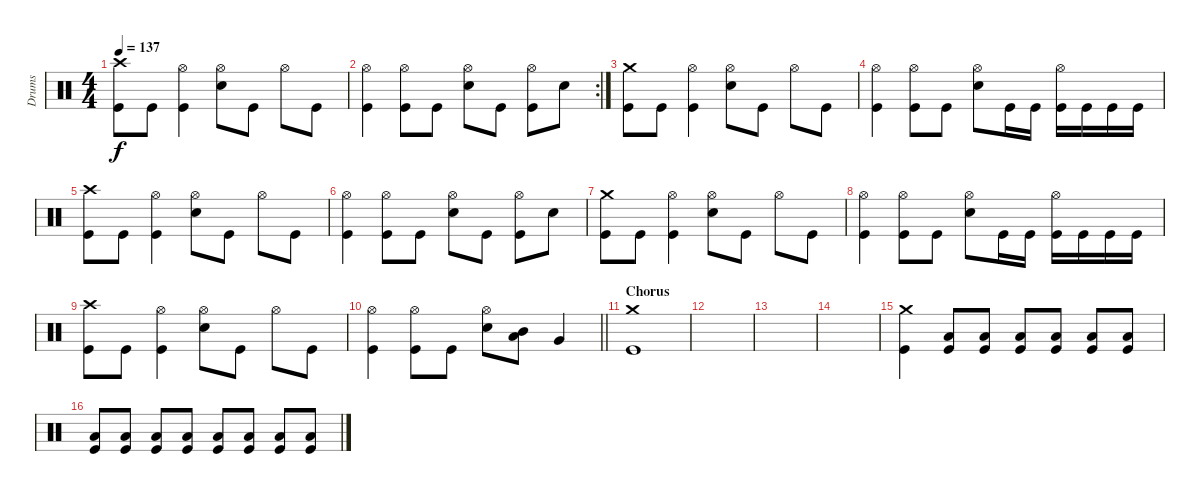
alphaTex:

\track ("Drums" "Drums") {instrument percussion}
\staff {score}
\articulation defaults
\ts (4 4)
\tempo 137
\clef neutral
\ks c
("Kick (hit)" "Crash high (hit)").8{dy f} "Kick (hit)".8 ("Kick (hit)" "Hi-Hat (open)").4 ("Snare (hit) 2" "Hi-Hat (open)").8 "Kick (hit)".8 "Hi-Hat (open)".8 "Kick (hit)".8 |
\rc 2
("Kick (hit)" "Hi-Hat (open)").4 ("Kick (hit)" "Hi-Hat (open)").8 "Kick (hit)".8 ("Snare (hit) 2" "Hi-Hat (open)").8 "Kick (hit)".8 ("Kick (hit)" "Hi-Hat (open)").8 "Snare (hit) 2".8 |
("Kick (hit)" "Crash medium (hit)").8 "Kick (hit)".8 ("Kick (hit)" "Hi-Hat (open)").4 ("Snare (hit) 2" "Hi-Hat (open)").8 "Kick (hit)".8 "Hi-Hat (open)".8 "Kick (hit)".8 |
("Kick (hit)" "Hi-Hat (open)").4 ("Kick (hit)" "Hi-Hat (open)").8 "Kick (hit)".8 ("Snare (hit) 2" "Hi-Hat (open)").8 "Kick (hit)".16 "Kick (hit)".16 ("Kick (hit)" "Hi-Hat (open)").16 "Kick (hit)".16 "Kick (hit)".16 "Kick (hit)".16 |
("Kick (hit)" "Crash high (hit)").8 "Kick (hit)".8 ("Kick (hit)" "Hi-Hat (open)").4 ("Snare (hit) 2" "Hi-Hat (open)").8 "Kick (hit)".8 "Hi-Hat (open)".8 "Kick (hit)".8 |
("Kick (hit)" "Hi-Hat (open)").4 ("Kick (hit)" "Hi-Hat (open)").8 "Kick (hit)".8 ("Snare (hit) 2" "Hi-Hat (open)").8 "Kick (hit)".8 ("Kick (hit)" "Hi-Hat (open)").8 "Snare (hit) 2".8 |
("Kick (hit)" "Crash medium (hit)").8 "Kick (hit)".8 ("Kick (hit)" "Hi-Hat (open)").4 ("Snare (hit) 2" "Hi-Hat (open)").8 "Kick (hit)".8 "Hi-Hat (open)".8 "Kick (hit)".8 |
("Kick (hit)" "Hi-Hat (open)").4 ("Kick (hit)" "Hi-Hat (open)").8 "Kick (hit)".8 ("Snare (hit) 2" "Hi-Hat (open)").8 "Kick (hit)".16 "Kick (hit)".16 ("Kick (hit)" "Hi-Hat (open)").16 "Kick (hit)".16 "Kick (hit)".16 "Kick (hit)".16 |
("Kick (hit)" "Crash high (hit)").8 "Kick (hit)".8 ("Kick (hit)" "Hi-Hat (open)").4 ("Snare (hit) 2" "Hi-Hat (open)").8 "Kick (hit)".8 "Hi-Hat (open)".8 "Kick (hit)".8 |
\barLineRight lightlight
("Kick (hit)" "Hi-Hat (open)").4 ("Kick (hit)" "Hi-Hat (open)").8 "Kick (hit)".8 ("Snare (hit) 2" "Hi-Hat (open)").8 ("Mid Tom (hit)" "Low Tom (hit)").8 "Very Low Tom (hit)".4 |
\section ("" "Chorus")
("Kick (hit)" "Crash medium (hit)").1 |
|
|
|
("Kick (hit)" "Crash medium (hit)").4 ("Kick (hit)" "Low Tom (hit)").8 ("Kick (hit)" "Low Tom (hit)").8 ("Kick (hit)" "Low Tom (hit)").8 ("Kick (hit)" "Low Tom (hit)").8 ("Kick (hit)" "Low Tom (hit)").8 ("Kick (hit)" "Low Tom (hit)").8 |
("Kick (hit)" "Low Tom (hit)").8 ("Kick (hit)" "Low Tom (hit)").8 ("Kick (hit)" "Low Tom (hit)").8 ("Kick (hit)" "Low Tom (hit)").8 ("Kick (hit)" "Low Tom (hit)").8 ("Kick (hit)" "Low Tom (hit)").8 ("Kick (hit)" "Low Tom (hit)").8 ("Kick (hit)" "Low Tom (hit)").8
